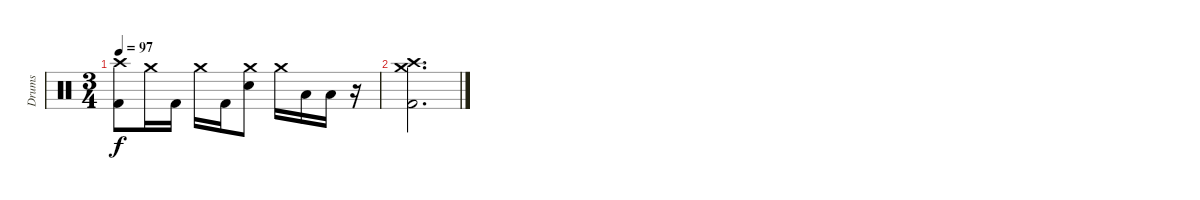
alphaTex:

\track ("Drums" "Drums") {instrument percussion}
\staff {score}
\articulation defaults
\ts (3 4)
\tempo 97
\clef neutral
\ks c
("Crash high (hit)" "Kick (hit) 2").8{dy f} "Crash medium (hit)".16 "Kick (hit) 2".16 "Crash medium (hit)".16 "Kick (hit) 2".16 ("Crash medium (hit)" "Electric Snare (hit)").8 "Crash medium (hit)".16 "Low Tom (hit)".16 "Low Floor Tom (hit)".16 r.16 |
("Crash high (hit)" "Crash medium (hit)" "Kick (hit) 2").2{d}
